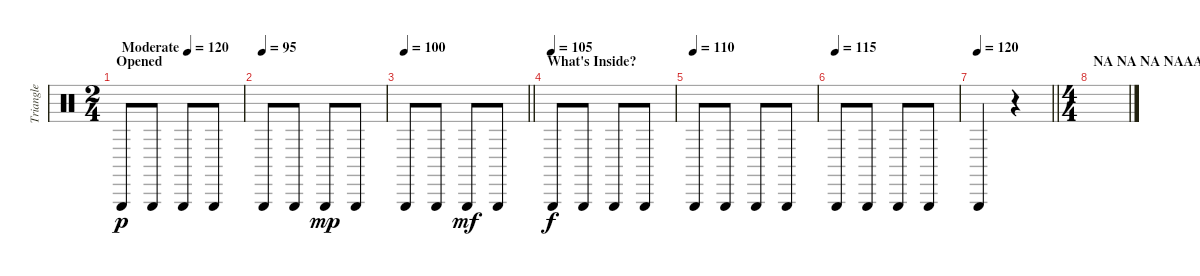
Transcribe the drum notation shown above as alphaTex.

\track ("Triangle" "Triangle") {instrument percussion}
\staff {score}
\articulation defaults
\ts (2 4)
\section ("" "Opened")
\tempo (120 "Moderate")
\tempo 90
\tempo (120 "Moderate")
\clef neutral
\ks c "Triangle (hit)".8{dy p} "Triangle (hit)".8 "Triangle (hit)".8 "Triangle (hit)".8
|
\tempo (95)
"Triangle (hit)".8 "Triangle (hit)".8 "Triangle (hit)".8{dy mp} "Triangle (hit)".8 |
\tempo 100
\barLineRight lightlight "Triangle (hit)".8 "Triangle (hit)".8 "Triangle (hit)".8{dy mf} "Triangle (hit)".8
|
\section ("" "What's Inside?")
\tempo (105)
"Triangle (hit)".8{dy f} "Triangle (hit)".8 "Triangle (hit)".8 "Triangle (hit)".8 |
\tempo (110)
"Triangle (hit)".8 "Triangle (hit)".8 "Triangle (hit)".8 "Triangle (hit)".8 |
\tempo (115)
"Triangle (hit)".8 "Triangle (hit)".8 "Triangle (hit)".8 "Triangle (hit)".8 |
\tempo 120
\barLineRight lightlight "Triangle (hit)".4
r.4 |
\ts (4 4)
\section ("" "NA NA NA NAAAA!!!")
